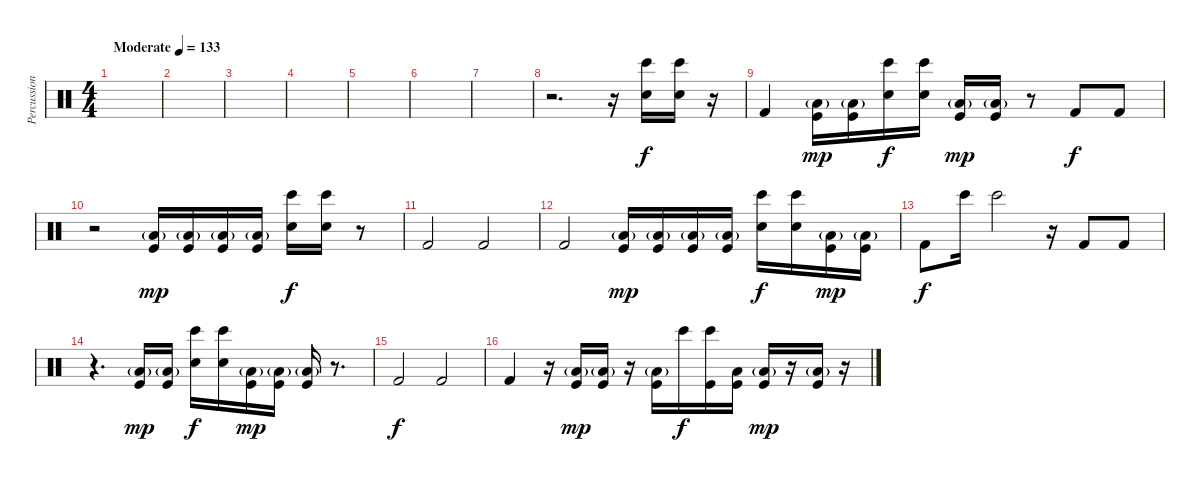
\track ("Percussion" "Percussion") {instrument percussion}
\staff {score}
\articulation defaults
\ts (4 4)
\tempo (133 "Moderate")
\clef neutral
\ks c
|
|
|
|
|
|
|
r.2{d} r.16 ("Bongo High (hit)" "Hand Clap (hit)").16 ("Bongo High (hit)" "Hand Clap (hit)").16 r.16 |
"Kick (hit) 2".4 ("Low Floor Tom (hit)"{g} "Kick (hit)").16{dy mp} ("Low Floor Tom (hit)"{g} "Kick (hit)").16 ("Bongo High (hit)" "Hand Clap (hit)").16{dy f} ("Bongo High (hit)" "Hand Clap (hit)").16 ("Low Floor Tom (hit)"{g} "Kick (hit)").16{dy mp} ("Low Floor Tom (hit)"{g} "Kick (hit)").16 r.8 "Kick (hit) 2".8{dy f} "Kick (hit) 2".8 |
r.2 ("Low Floor Tom (hit)"{g} "Kick (hit)").16{dy mp} ("Low Floor Tom (hit)"{g} "Kick (hit)").16 ("Low Floor Tom (hit)"{g} "Kick (hit)").16 ("Low Floor Tom (hit)"{g} "Kick (hit)").16 ("Bongo High (hit)" "Hand Clap (hit)").16{dy f} ("Bongo High (hit)" "Hand Clap (hit)").16 r.8 |
"Kick (hit) 2".2 "Kick (hit) 2".2 |
"Kick (hit) 2".2 ("Low Floor Tom (hit)"{g} "Kick (hit)").16{dy mp} ("Low Floor Tom (hit)"{g} "Kick (hit)").16 ("Low Floor Tom (hit)"{g} "Kick (hit)").16 ("Low Floor Tom (hit)"{g} "Kick (hit)").16 ("Bongo High (hit)" "Hand Clap (hit)").16{dy f} ("Bongo High (hit)" "Hand Clap (hit)").16 ("Low Floor Tom (hit)"{g} "Kick (hit)").16{dy mp} ("Low Floor Tom (hit)"{g} "Kick (hit)").16 |
"Kick (hit) 2".8{dy f} "Bongo High (hit)".16 "Bongo High (hit)".2 r.16 "Kick (hit) 2".8 "Kick (hit) 2".8 |
r.4{d} ("Low Floor Tom (hit)"{g} "Kick (hit)").16{dy mp} ("Low Floor Tom (hit)"{g} "Kick (hit)").16 ("Bongo High (hit)" "Hand Clap (hit)").16{dy f} ("Bongo High (hit)" "Hand Clap (hit)").16 ("Low Floor Tom (hit)"{g} "Kick (hit)").16{dy mp} ("Low Floor Tom (hit)"{g} "Kick (hit)").16 ("Low Floor Tom (hit)"{g} "Kick (hit)").16 r.8{d} |
"Kick (hit) 2".2{dy f} "Kick (hit) 2".2 |
"Kick (hit) 2".4 r.16 ("Low Floor Tom (hit)"{g} "Kick (hit)").16{dy mp} ("Low Floor Tom (hit)"{g} "Kick (hit)").16 r.16 ("Low Floor Tom (hit)"{g} "Kick (hit)").16 "Bongo High (hit)".16{dy f} ("Bongo High (hit)" "Kick (hit)").16 ("Low Floor Tom (hit)" "Kick (hit)").16 ("Low Floor Tom (hit)"{g} "Kick (hit)").16{dy mp} r.16 ("Low Floor Tom (hit)"{g} "Kick (hit)").16 r.16
